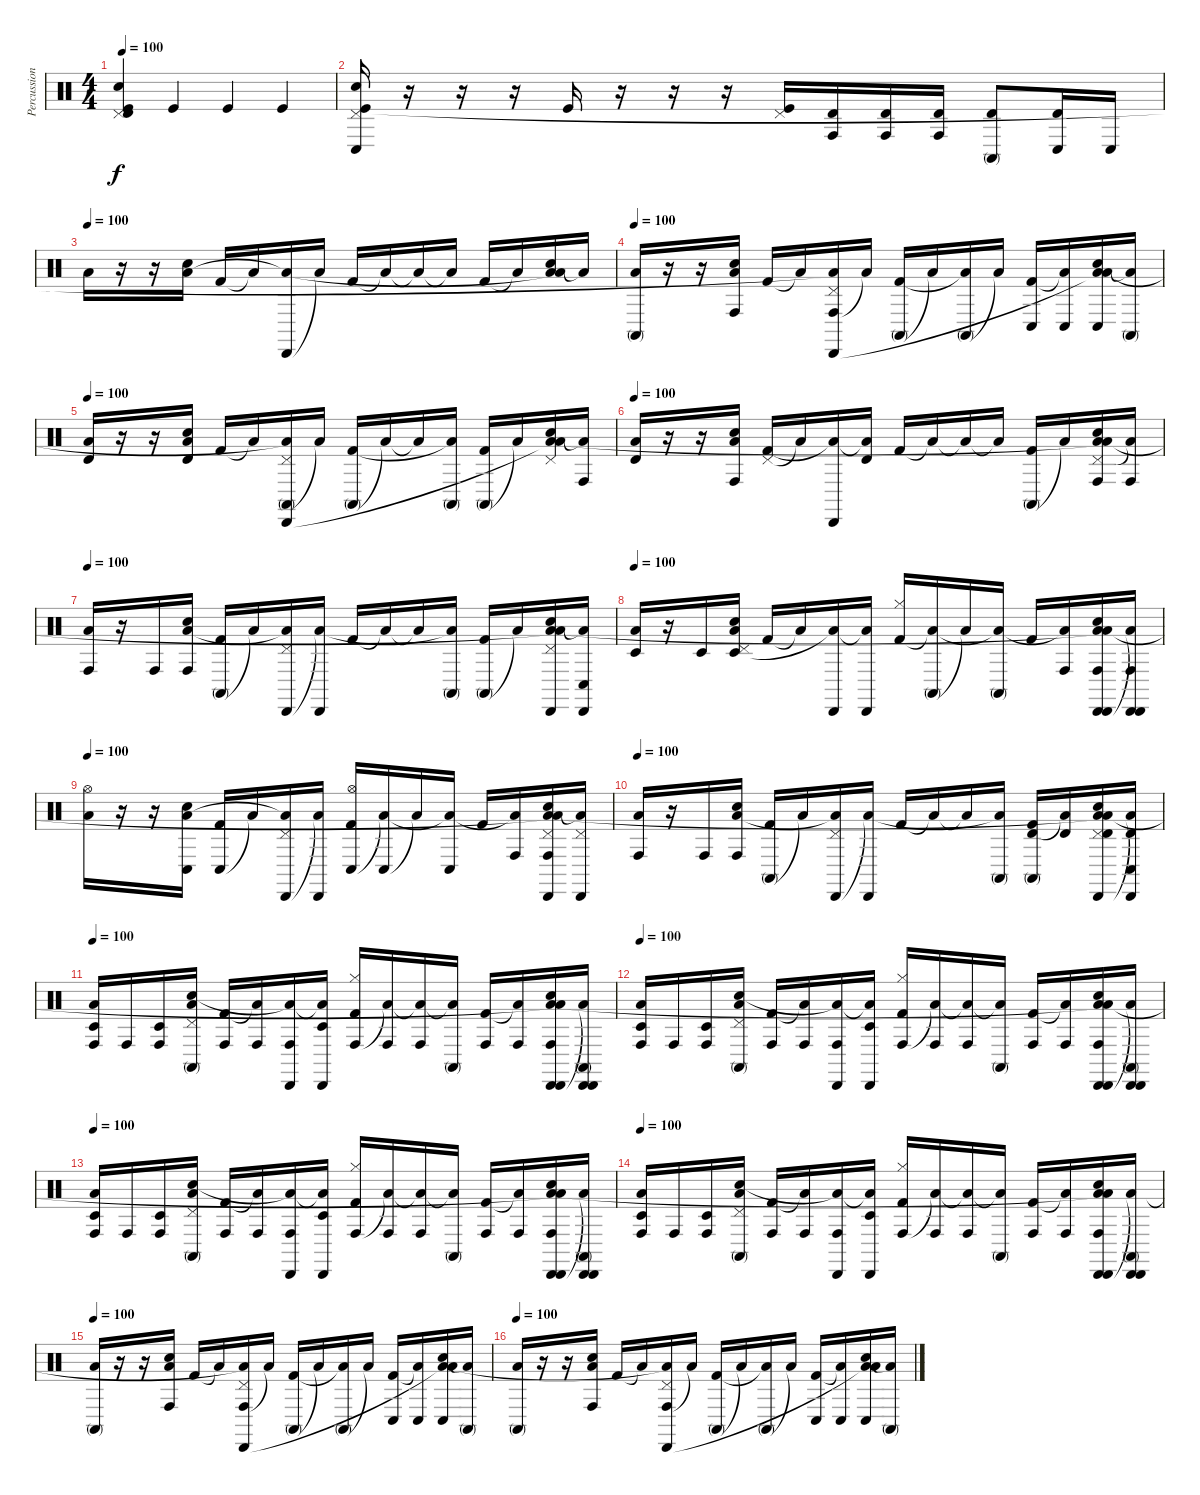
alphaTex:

\track ("Percussion" "Percussion") {instrument percussion}
\staff {score}
\articulation defaults
\ts (4 4)
\tempo 100
\clef neutral
\ks c
("Pedal Hi-Hat (hit)" "Hand Clap (hit)" "Timbale high (hit)" "Kick (hit)").4{dy f} "Kick (hit)".4 "Kick (hit)".4 "Kick (hit)".4 |
("Pedal Hi-Hat (hit)" "Hand Clap (hit)" "Conga low (hit)" "Kick (hit)").16 r.16 r.16 r.16 "Kick (hit)".16 r.16 r.16 r.16 ("Pedal Hi-Hat (hit)" "Kick (hit)").16 ("Conga high (hit)" "Timbale high (hit)").16 ("Conga high (hit)" "Timbale high (hit)").16 ("Conga high (hit)" "Timbale high (hit)").16 ("Conga high (mute)" "Timbale high (hit)").8 ("Conga low (hit)" "Timbale high (hit)").16 "Conga low (hit)".16 |
\tempo (100)
"Low Floor Tom (hit)".16 r.16 r.16 ("Hand Clap (hit)" "Low Tom (hit)").16 "Kick (hit) 2".16 "Low Tom (hit)"{t}.16 ("Cabasa (hit)" "Low Tom (hit)"{t}).16 "Low Tom (hit)"{t}.16 "Kick (hit) 2".16 "Low Tom (hit)"{t}.16 "Low Tom (hit)"{t}.16 "Low Tom (hit)"{t}.16 "Kick (hit) 2".16 "Low Tom (hit)"{t}.16 ("Hand Clap (hit)" "Low Tom (hit)"{t} "Low Floor Tom (hit)").16 "Low Tom (hit)"{t}.16 |
\tempo 100
("Conga high (mute)" "Low Floor Tom (hit)").16 r.16 r.16 ("Conga high (hit)" "Hand Clap (hit)" "Low Tom (hit)").16 "Kick (hit) 2".16 "Low Tom (hit)"{t}.16 ("Conga high (hit)" "Pedal Hi-Hat (hit)" "Cabasa (hit)" "Low Tom (hit)"{t}).16 "Low Tom (hit)"{t}.16 ("Conga high (mute)" "Kick (hit) 2").16 "Low Tom (hit)"{t}.16 ("Conga high (mute)" "Low Tom (hit)"{t}).16 "Low Tom (hit)"{t}.16 ("Conga low (hit)" "Kick (hit) 2").16 ("Conga low (hit)" "Low Tom (hit)"{t}).16 ("Conga low (hit)" "Hand Clap (hit)" "Low Tom (hit)"{t} "Low Floor Tom (hit)").16 ("Conga high (mute)" "Low Tom (hit)"{t}).16 |
\tempo 100
("Timbale high (hit)" "Low Floor Tom (hit)").16 r.16 r.16 ("Timbale high (hit)" "Hand Clap (hit)" "Low Tom (hit)").16 "Kick (hit) 2".16 "Low Tom (hit)"{t}.16 ("Conga high (mute)" "Pedal Hi-Hat (hit)" "Cabasa (hit)" "Low Tom (hit)"{t}).16 "Low Tom (hit)"{t}.16 ("Conga high (mute)" "Kick (hit) 2").16 "Low Tom (hit)"{t}.16 "Low Tom (hit)"{t}.16 ("Conga high (mute)" "Low Tom (hit)"{t}).16 ("Conga high (mute)" "Kick (hit) 2").16 "Low Tom (hit)"{t}.16 ("Pedal Hi-Hat (hit)" "Hand Clap (hit)" "Low Tom (hit)"{t} "Low Floor Tom (hit)").16 ("Conga high (hit)" "Low Tom (hit)"{t}).16 |
\tempo 100
("Timbale high (hit)" "Low Floor Tom (hit)").16 r.16 r.16 ("Conga high (hit)" "Hand Clap (hit)" "Low Tom (hit)").16 ("Pedal Hi-Hat (hit)" "Kick (hit) 2").16 "Low Tom (hit)"{t}.16 ("Cabasa (hit)" "Low Tom (hit)"{t}).16 ("Timbale high (hit)" "Low Tom (hit)"{t}).16 "Kick (hit) 2".16 "Low Tom (hit)"{t}.16 "Low Tom (hit)"{t}.16 "Low Tom (hit)"{t}.16 ("Conga high (mute)" "Kick (hit) 2").16 "Low Tom (hit)"{t}.16 ("Conga high (hit)" "Pedal Hi-Hat (hit)" "Hand Clap (hit)" "Low Tom (hit)"{t} "Low Floor Tom (hit)").16 ("Conga high (hit)" "Low Tom (hit)"{t}).16 |
\tempo 100
("Conga high (hit)" "Low Floor Tom (hit)").16 r.16 "Conga high (hit)".16 ("Conga high (hit)" "Hand Clap (hit)" "Low Tom (hit)").16 ("Conga high (mute)" "Kick (hit) 2").16 "Low Tom (hit)"{t}.16 ("Pedal Hi-Hat (hit)" "Cabasa (hit)" "Low Tom (hit)"{t}).16 ("Cabasa (hit)" "Low Tom (hit)"{t}).16 "Kick (hit) 2".16 "Low Tom (hit)"{t}.16 "Low Tom (hit)"{t}.16 ("Conga high (mute)" "Low Tom (hit)"{t}).16 ("Conga high (mute)" "Kick (hit) 2").16 "Low Tom (hit)"{t}.16 ("Pedal Hi-Hat (hit)" "Cabasa (hit)" "Hand Clap (hit)" "Low Tom (hit)"{t} "Low Floor Tom (hit)").16 ("Conga low (hit)" "Cabasa (hit)" "Low Tom (hit)"{t}).16 |
\tempo 100
("Timbale low (hit)" "Low Floor Tom (hit)").16 r.16 "Timbale low (hit)".16 ("Pedal Hi-Hat (hit)" "Timbale low (hit)" "Hand Clap (hit)" "Low Tom (hit)").16 "Kick (hit) 2".16 "Low Tom (hit)"{t}.16 ("Cabasa (hit)" "Low Tom (hit)"{t}).16 ("Cabasa (hit)" "Low Tom (hit)"{t}).16 ("Hi-Hat (closed)" "Kick (hit) 2").16 ("Conga high (mute)" "Low Tom (hit)"{t}).16 "Low Tom (hit)"{t}.16 ("Conga high (mute)" "Low Tom (hit)"{t}).16 "Kick (hit) 2".16 ("Conga high (hit)" "Low Tom (hit)"{t}).16 ("Cabasa (hit)" "Conga high (hit)" "Hand Clap (hit)" "Cabasa (hit)" "Low Tom (hit)"{t} "Low Floor Tom (hit)").16 ("Cabasa (hit)" "Conga high (hit)" "Cabasa (hit)" "Low Tom (hit)"{t}).16 |
\tempo 100
("Hi-Hat (open)" "Low Floor Tom (hit)").16 r.16 r.16 ("Conga low (hit)" "Hand Clap (hit)" "Low Tom (hit)").16 ("Conga low (hit)" "Kick (hit) 2").16 "Low Tom (hit)"{t}.16 ("Pedal Hi-Hat (hit)" "Cabasa (hit)" "Low Tom (hit)"{t}).16 ("Cabasa (hit)" "Low Tom (hit)"{t}).16 ("Hi-Hat (open)" "Conga low (hit)" "Kick (hit) 2").16 ("Conga low (hit)" "Low Tom (hit)"{t}).16 "Low Tom (hit)"{t}.16 ("Conga low (hit)" "Low Tom (hit)"{t}).16 "Kick (hit) 2".16 ("Conga high (hit)" "Low Tom (hit)"{t}).16 ("Pedal Hi-Hat (hit)" "Conga high (hit)" "Hand Clap (hit)" "Cabasa (hit)" "Low Tom (hit)"{t} "Low Floor Tom (hit)").16 ("Pedal Hi-Hat (hit)" "Cabasa (hit)" "Low Tom (hit)"{t}).16 |
\tempo 100
("Conga high (hit)" "Low Floor Tom (hit)").16 r.16 "Conga high (hit)".16 ("Conga high (hit)" "Hand Clap (hit)" "Low Tom (hit)").16 ("Conga high (mute)" "Kick (hit) 2").16 "Low Tom (hit)"{t}.16 ("Pedal Hi-Hat (hit)" "Cabasa (hit)" "Low Tom (hit)"{t}).16 ("Cabasa (hit)" "Low Tom (hit)"{t}).16 "Kick (hit) 2".16 "Low Tom (hit)"{t}.16 "Low Tom (hit)"{t}.16 ("Conga high (mute)" "Low Tom (hit)"{t}).16 ("Conga high (mute)" "Timbale high (hit)" "Kick (hit) 2").16 ("Timbale high (hit)" "Low Tom (hit)"{t}).16 ("Pedal Hi-Hat (hit)" "Timbale high (hit)" "Hand Clap (hit)" "Cabasa (hit)" "Low Tom (hit)"{t} "Low Floor Tom (hit)").16 ("Conga low (hit)" "Timbale high (hit)" "Cabasa (hit)" "Low Tom (hit)"{t}).16 |
\tempo 100
("Timbale low (hit)" "Conga high (hit)" "Low Floor Tom (hit)").16 "Conga high (hit)".16 ("Timbale low (hit)" "Conga high (hit)").16 ("Pedal Hi-Hat (hit)" "Conga high (mute)" "Hand Clap (hit)" "Low Tom (hit)").16 ("Conga high (hit)" "Kick (hit) 2").16 ("Conga high (hit)" "Low Tom (hit)"{t}).16 ("Conga high (hit)" "Cabasa (hit)" "Low Tom (hit)"{t}).16 ("Timbale low (hit)" "Cabasa (hit)" "Low Tom (hit)"{t}).16 ("Hi-Hat (closed)" "Conga high (hit)" "Kick (hit) 2").16 ("Conga high (hit)" "Low Tom (hit)"{t}).16 ("Conga high (hit)" "Low Tom (hit)"{t}).16 ("Conga high (mute)" "Low Tom (hit)"{t}).16 ("Conga high (hit)" "Kick (hit) 2").16 ("Conga high (hit)" "Low Tom (hit)"{t}).16 ("Cabasa (hit)" "Conga high (hit)" "Hand Clap (hit)" "Cabasa (hit)" "Low Tom (hit)"{t} "Low Floor Tom (hit)").16 ("Cabasa (hit)" "Conga high (mute)" "Cabasa (hit)" "Low Tom (hit)"{t}).16 |
\tempo 100
("Timbale low (hit)" "Conga high (hit)" "Low Floor Tom (hit)").16 "Conga high (hit)".16 ("Timbale low (hit)" "Conga high (hit)").16 ("Pedal Hi-Hat (hit)" "Conga high (mute)" "Hand Clap (hit)" "Low Tom (hit)").16 ("Conga high (hit)" "Kick (hit) 2").16 ("Conga high (hit)" "Low Tom (hit)"{t}).16 ("Conga high (hit)" "Cabasa (hit)" "Low Tom (hit)"{t}).16 ("Timbale low (hit)" "Cabasa (hit)" "Low Tom (hit)"{t}).16 ("Hi-Hat (closed)" "Conga high (hit)" "Kick (hit) 2").16 ("Conga high (hit)" "Low Tom (hit)"{t}).16 ("Conga high (hit)" "Low Tom (hit)"{t}).16 ("Conga high (mute)" "Low Tom (hit)"{t}).16 ("Conga high (hit)" "Kick (hit) 2").16 ("Conga high (hit)" "Low Tom (hit)"{t}).16 ("Cabasa (hit)" "Conga high (hit)" "Hand Clap (hit)" "Cabasa (hit)" "Low Tom (hit)"{t} "Low Floor Tom (hit)").16 ("Cabasa (hit)" "Conga high (mute)" "Cabasa (hit)" "Low Tom (hit)"{t}).16 |
\tempo 100
("Timbale low (hit)" "Conga high (hit)" "Low Floor Tom (hit)").16 "Conga high (hit)".16 ("Timbale low (hit)" "Conga high (hit)").16 ("Pedal Hi-Hat (hit)" "Conga high (mute)" "Hand Clap (hit)" "Low Tom (hit)").16 ("Conga high (hit)" "Kick (hit) 2").16 ("Conga high (hit)" "Low Tom (hit)"{t}).16 ("Conga high (hit)" "Cabasa (hit)" "Low Tom (hit)"{t}).16 ("Timbale low (hit)" "Cabasa (hit)" "Low Tom (hit)"{t}).16 ("Hi-Hat (closed)" "Conga high (hit)" "Kick (hit) 2").16 ("Conga high (hit)" "Low Tom (hit)"{t}).16 ("Conga high (hit)" "Low Tom (hit)"{t}).16 ("Conga high (mute)" "Low Tom (hit)"{t}).16 ("Conga high (hit)" "Kick (hit) 2").16 ("Conga high (hit)" "Low Tom (hit)"{t}).16 ("Cabasa (hit)" "Conga high (hit)" "Hand Clap (hit)" "Cabasa (hit)" "Low Tom (hit)"{t} "Low Floor Tom (hit)").16 ("Cabasa (hit)" "Conga high (mute)" "Cabasa (hit)" "Low Tom (hit)"{t}).16 |
\tempo 100
("Timbale low (hit)" "Conga high (hit)" "Low Floor Tom (hit)").16 "Conga high (hit)".16 ("Timbale low (hit)" "Conga high (hit)").16 ("Pedal Hi-Hat (hit)" "Conga high (mute)" "Hand Clap (hit)" "Low Tom (hit)").16 ("Conga high (hit)" "Kick (hit) 2").16 ("Conga high (hit)" "Low Tom (hit)"{t}).16 ("Conga high (hit)" "Cabasa (hit)" "Low Tom (hit)"{t}).16 ("Timbale low (hit)" "Cabasa (hit)" "Low Tom (hit)"{t}).16 ("Hi-Hat (closed)" "Conga high (hit)" "Kick (hit) 2").16 ("Conga high (hit)" "Low Tom (hit)"{t}).16 ("Conga high (hit)" "Low Tom (hit)"{t}).16 ("Conga high (mute)" "Low Tom (hit)"{t}).16 ("Conga high (hit)" "Kick (hit) 2").16 ("Conga high (hit)" "Low Tom (hit)"{t}).16 ("Cabasa (hit)" "Conga high (hit)" "Hand Clap (hit)" "Cabasa (hit)" "Low Tom (hit)"{t} "Low Floor Tom (hit)").16 ("Cabasa (hit)" "Conga high (mute)" "Cabasa (hit)" "Low Tom (hit)"{t}).16 |
\tempo 100
("Conga high (mute)" "Low Floor Tom (hit)").16 r.16 r.16 ("Conga high (hit)" "Hand Clap (hit)" "Low Tom (hit)").16 "Kick (hit) 2".16 "Low Tom (hit)"{t}.16 ("Conga high (hit)" "Pedal Hi-Hat (hit)" "Cabasa (hit)" "Low Tom (hit)"{t}).16 "Low Tom (hit)"{t}.16 ("Conga high (mute)" "Kick (hit) 2").16 "Low Tom (hit)"{t}.16 ("Conga high (mute)" "Low Tom (hit)"{t}).16 "Low Tom (hit)"{t}.16 ("Conga low (hit)" "Kick (hit) 2").16 ("Conga low (hit)" "Low Tom (hit)"{t}).16 ("Conga low (hit)" "Hand Clap (hit)" "Low Tom (hit)"{t} "Low Floor Tom (hit)").16 ("Conga high (mute)" "Low Tom (hit)"{t}).16 |
\tempo 100
("Conga high (mute)" "Low Floor Tom (hit)").16 r.16 r.16 ("Conga high (hit)" "Hand Clap (hit)" "Low Tom (hit)").16 "Kick (hit) 2".16 "Low Tom (hit)"{t}.16 ("Conga high (hit)" "Pedal Hi-Hat (hit)" "Cabasa (hit)" "Low Tom (hit)"{t}).16 "Low Tom (hit)"{t}.16 ("Conga high (mute)" "Kick (hit) 2").16 "Low Tom (hit)"{t}.16 ("Conga high (mute)" "Low Tom (hit)"{t}).16 "Low Tom (hit)"{t}.16 ("Conga low (hit)" "Kick (hit) 2").16 ("Conga low (hit)" "Low Tom (hit)"{t}).16 ("Conga low (hit)" "Hand Clap (hit)" "Low Tom (hit)"{t} "Low Floor Tom (hit)").16 ("Conga high (mute)" "Low Tom (hit)"{t}).16
